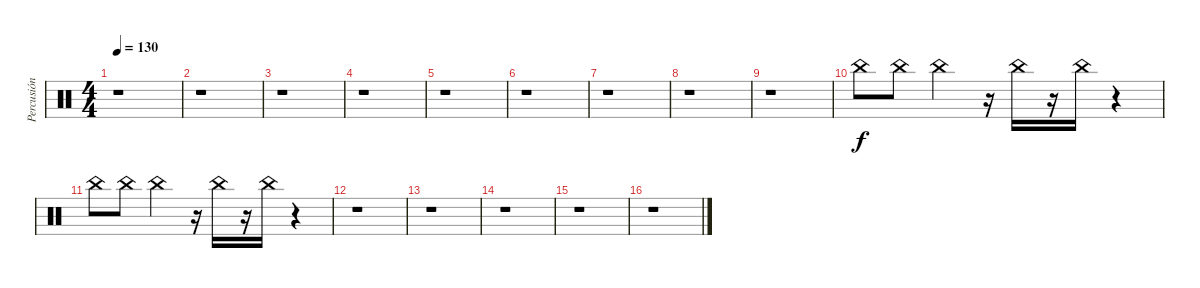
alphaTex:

\track ("Percusión" "Percusión") {instrument percussion}
\staff {score}
\articulation defaults
\ts (4 4)
\tempo 130
\clef neutral
\ks c
r.1{dy f} |
r.1 |
r.1 |
r.1 |
r.1 |
r.1 |
r.1 |
r.1 |
r.1 |
"China (hit)".8 "China (hit)".8 "China (hit)".4 r.16 "China (hit)".16 r.16 "China (hit)".16 r.4 |
"China (hit)".8 "China (hit)".8 "China (hit)".4 r.16 "China (hit)".16 r.16 "China (hit)".16 r.4 |
r.1 |
r.1 |
r.1 |
r.1 |
r.1
